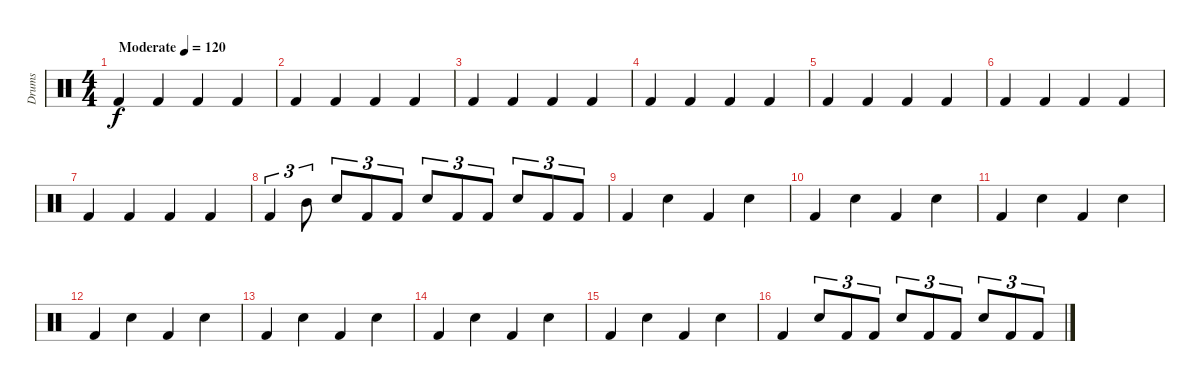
\track ("Drums" "Drums") {instrument percussion}
\staff {score}
\articulation defaults
\ts (4 4)
\tempo (120 "Moderate")
\clef neutral
\ks c "Kick (hit) 2".4{dy f} "Kick (hit) 2".4 "Kick (hit) 2".4 "Kick (hit) 2".4
|
"Kick (hit) 2".4 "Kick (hit) 2".4 "Kick (hit) 2".4 "Kick (hit) 2".4 |
"Kick (hit) 2".4 "Kick (hit) 2".4 "Kick (hit) 2".4 "Kick (hit) 2".4 |
"Kick (hit) 2".4 "Kick (hit) 2".4 "Kick (hit) 2".4 "Kick (hit) 2".4 |
"Kick (hit) 2".4 "Kick (hit) 2".4 "Kick (hit) 2".4 "Kick (hit) 2".4 |
"Kick (hit) 2".4 "Kick (hit) 2".4 "Kick (hit) 2".4 "Kick (hit) 2".4 |
"Kick (hit) 2".4 "Kick (hit) 2".4 "Kick (hit) 2".4 "Kick (hit) 2".4 |
"Kick (hit) 2".4{tu (3 2)} "Mid Tom (hit)".8{tu (3 2)} "Electric Snare (hit)".8{tu (3 2)} "Kick (hit) 2".8{tu (3 2)} "Kick (hit) 2".8{tu (3 2)} "Electric Snare (hit)".8{tu (3 2)} "Kick (hit) 2".8{tu (3 2)} "Kick (hit) 2".8{tu (3 2)} "Electric Snare (hit)".8{tu (3 2)} "Kick (hit) 2".8{tu (3 2)} "Kick (hit) 2".8{tu (3 2)} |
"Kick (hit) 2".4 "Electric Snare (hit)".4 "Kick (hit) 2".4 "Electric Snare (hit)".4 |
"Kick (hit) 2".4 "Electric Snare (hit)".4 "Kick (hit) 2".4 "Electric Snare (hit)".4 |
"Kick (hit) 2".4 "Electric Snare (hit)".4 "Kick (hit) 2".4 "Electric Snare (hit)".4 |
"Kick (hit) 2".4 "Electric Snare (hit)".4 "Kick (hit) 2".4 "Electric Snare (hit)".4 |
"Kick (hit) 2".4 "Electric Snare (hit)".4 "Kick (hit) 2".4 "Electric Snare (hit)".4 |
"Kick (hit) 2".4 "Electric Snare (hit)".4 "Kick (hit) 2".4 "Electric Snare (hit)".4 |
"Kick (hit) 2".4 "Electric Snare (hit)".4 "Kick (hit) 2".4 "Electric Snare (hit)".4 |
"Kick (hit) 2".4 "Electric Snare (hit)".8{tu (3 2)} "Kick (hit) 2".8{tu (3 2)} "Kick (hit) 2".8{tu (3 2)} "Electric Snare (hit)".8{tu (3 2)} "Kick (hit) 2".8{tu (3 2)} "Kick (hit) 2".8{tu (3 2)} "Electric Snare (hit)".8{tu (3 2)} "Kick (hit) 2".8{tu (3 2)} "Kick (hit) 2".8{tu (3 2)}
